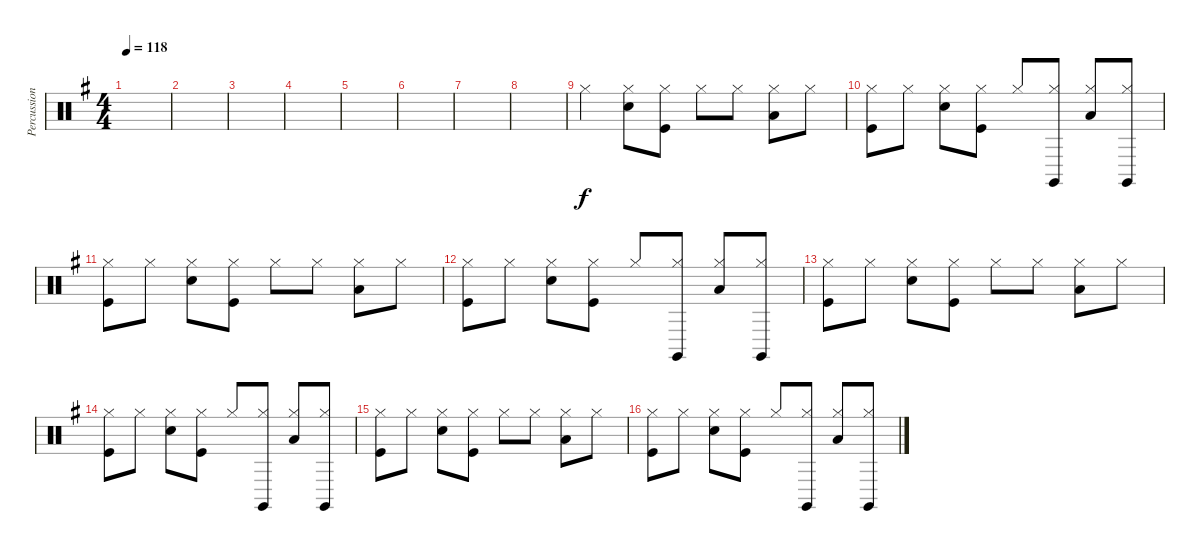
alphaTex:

\track ("Percussion" "Percussion") {instrument percussion}
\staff {score}
\articulation defaults
\ts (4 4)
\tempo 118
\clef neutral
\ks g
|
|
|
|
|
|
|
|
"Hi-Hat (closed)".4 ("Hi-Hat (closed)" "Electric Snare (hit)").8 ("Hi-Hat (closed)" "Kick (hit)").8 "Hi-Hat (closed)".8 "Hi-Hat (closed)".8 ("Hi-Hat (closed)" "Low Tom (hit)").8 "Hi-Hat (closed)".8 |
("Hi-Hat (closed)" "Kick (hit)").8 "Hi-Hat (closed)".8 ("Hi-Hat (closed)" "Electric Snare (hit)").8 ("Hi-Hat (closed)" "Kick (hit)").8 "Hi-Hat (closed)".8 ("Hi-Hat (closed)" "Claves (hit)").8 ("Hi-Hat (closed)" "Low Tom (hit)").8 ("Hi-Hat (closed)" "Claves (hit)").8 |
("Hi-Hat (closed)" "Kick (hit)").8 "Hi-Hat (closed)".8 ("Hi-Hat (closed)" "Electric Snare (hit)").8 ("Hi-Hat (closed)" "Kick (hit)").8 "Hi-Hat (closed)".8 "Hi-Hat (closed)".8 ("Hi-Hat (closed)" "Low Tom (hit)").8 "Hi-Hat (closed)".8 |
("Hi-Hat (closed)" "Kick (hit)").8 "Hi-Hat (closed)".8 ("Hi-Hat (closed)" "Electric Snare (hit)").8 ("Hi-Hat (closed)" "Kick (hit)").8 "Hi-Hat (closed)".8 ("Hi-Hat (closed)" "Claves (hit)").8 ("Hi-Hat (closed)" "Low Tom (hit)").8 ("Hi-Hat (closed)" "Claves (hit)").8 |
("Hi-Hat (closed)" "Kick (hit)").8 "Hi-Hat (closed)".8 ("Hi-Hat (closed)" "Electric Snare (hit)").8 ("Hi-Hat (closed)" "Kick (hit)").8 "Hi-Hat (closed)".8 "Hi-Hat (closed)".8 ("Hi-Hat (closed)" "Low Tom (hit)").8 "Hi-Hat (closed)".8 |
("Hi-Hat (closed)" "Kick (hit)").8 "Hi-Hat (closed)".8 ("Hi-Hat (closed)" "Electric Snare (hit)").8 ("Hi-Hat (closed)" "Kick (hit)").8 "Hi-Hat (closed)".8 ("Hi-Hat (closed)" "Claves (hit)").8 ("Hi-Hat (closed)" "Low Tom (hit)").8 ("Hi-Hat (closed)" "Claves (hit)").8 |
("Hi-Hat (closed)" "Kick (hit)").8 "Hi-Hat (closed)".8 ("Hi-Hat (closed)" "Electric Snare (hit)").8 ("Hi-Hat (closed)" "Kick (hit)").8 "Hi-Hat (closed)".8 "Hi-Hat (closed)".8 ("Hi-Hat (closed)" "Low Tom (hit)").8 "Hi-Hat (closed)".8 |
("Hi-Hat (closed)" "Kick (hit)").8 "Hi-Hat (closed)".8 ("Hi-Hat (closed)" "Electric Snare (hit)").8 ("Hi-Hat (closed)" "Kick (hit)").8 "Hi-Hat (closed)".8 ("Hi-Hat (closed)" "Claves (hit)").8 ("Hi-Hat (closed)" "Low Tom (hit)").8 ("Hi-Hat (closed)" "Claves (hit)").8
